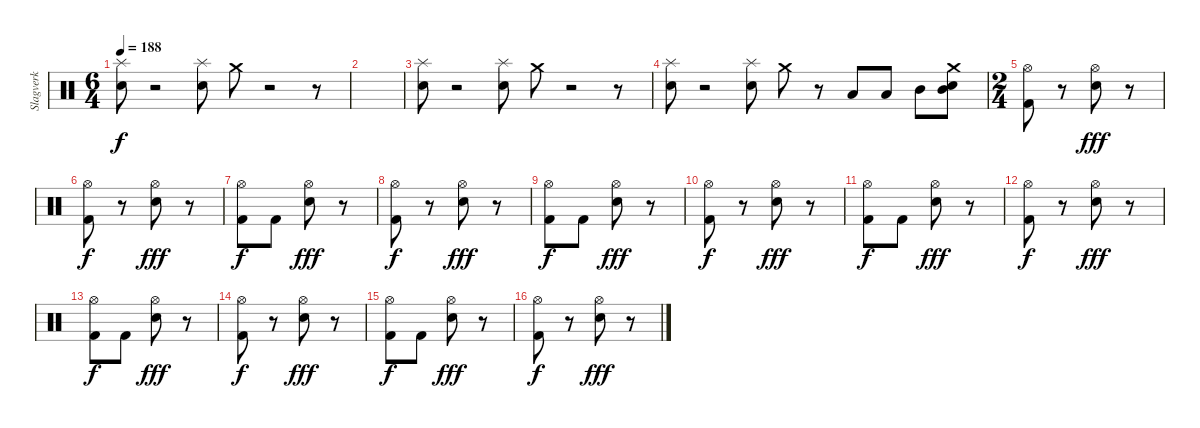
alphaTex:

\track ("Slagverk" "Slagverk") {instrument percussion}
\staff {score}
\articulation defaults
\ts (6 4)
\tempo 188
\clef neutral
\ks c
("Splash (hit)" "Snare (hit) 2").8{dy f} r.2 ("Splash (hit)" "Snare (hit) 2").8 "Crash medium (hit)".8 r.2 r.8 |
|
("Splash (hit)" "Snare (hit) 2").8 r.2 ("Splash (hit)" "Snare (hit) 2").8 "Crash medium (hit)".8 r.2 r.8 |
("Splash (hit)" "Snare (hit) 2").8 r.2 ("Splash (hit)" "Snare (hit) 2").8 "Crash medium (hit)".8 r.8 "Low Tom (hit)".8 "Low Tom (hit)".8 "Mid Tom (hit)".8 ("Crash medium (hit)" "Snare (hit) 2" "Mid Tom (hit)").8 |
\ts (2 4)
("Hi-Hat (open)" "Kick (hit) 2").8 r.8 ("Hi-Hat (open)" "Snare (hit) 2").8{dy fff} r.8 |
("Hi-Hat (open)" "Kick (hit) 2").8{dy f} r.8 ("Hi-Hat (open)" "Snare (hit) 2").8{dy fff} r.8 |
("Hi-Hat (open)" "Kick (hit) 2").8{dy f} "Kick (hit) 2".8 ("Hi-Hat (open)" "Snare (hit) 2").8{dy fff} r.8 |
("Hi-Hat (open)" "Kick (hit) 2").8{dy f} r.8 ("Hi-Hat (open)" "Snare (hit) 2").8{dy fff} r.8 |
("Hi-Hat (open)" "Kick (hit) 2").8{dy f} "Kick (hit) 2".8 ("Hi-Hat (open)" "Snare (hit) 2").8{dy fff} r.8 |
("Hi-Hat (open)" "Kick (hit) 2").8{dy f} r.8 ("Hi-Hat (open)" "Snare (hit) 2").8{dy fff} r.8 |
("Hi-Hat (open)" "Kick (hit) 2").8{dy f} "Kick (hit) 2".8 ("Hi-Hat (open)" "Snare (hit) 2").8{dy fff} r.8 |
("Hi-Hat (open)" "Kick (hit) 2").8{dy f} r.8 ("Hi-Hat (open)" "Snare (hit) 2").8{dy fff} r.8 |
("Hi-Hat (open)" "Kick (hit) 2").8{dy f} "Kick (hit) 2".8 ("Hi-Hat (open)" "Snare (hit) 2").8{dy fff} r.8 |
("Hi-Hat (open)" "Kick (hit) 2").8{dy f} r.8 ("Hi-Hat (open)" "Snare (hit) 2").8{dy fff} r.8 |
("Hi-Hat (open)" "Kick (hit) 2").8{dy f} "Kick (hit) 2".8 ("Hi-Hat (open)" "Snare (hit) 2").8{dy fff} r.8 |
("Hi-Hat (open)" "Kick (hit) 2").8{dy f} r.8 ("Hi-Hat (open)" "Snare (hit) 2").8{dy fff} r.8
